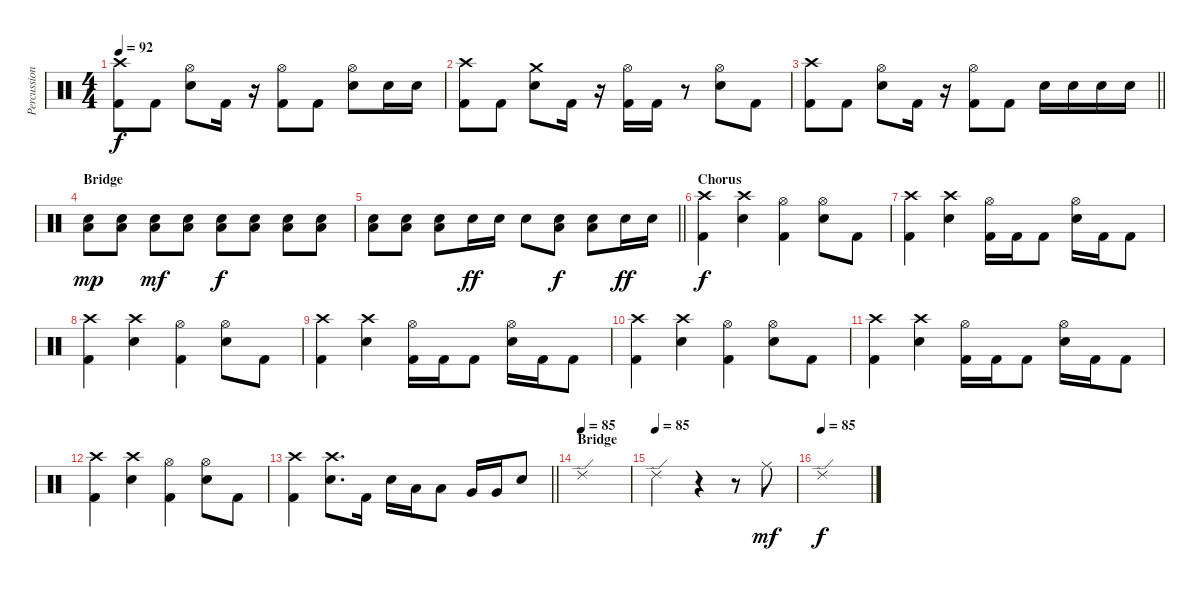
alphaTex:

\track ("Percussion" "Percussion") {instrument percussion}
\staff {score}
\articulation defaults
\ts (4 4)
\tempo 92
\clef neutral
\ks c
("Crash high (hit)" "Kick (hit) 2").8{dy f} "Kick (hit) 2".8 ("Hi-Hat (open)" "Snare (hit) 2").8 "Kick (hit) 2".16 r.16 ("Hi-Hat (open)" "Kick (hit) 2").8 "Kick (hit) 2".8 ("Hi-Hat (open)" "Snare (hit) 2").8 "Snare (hit) 2".16 "Snare (hit) 2".16 |
("Crash high (hit)" "Kick (hit) 2").8 "Kick (hit) 2".8 ("Crash medium (hit)" "Snare (hit) 2").8 "Kick (hit) 2".16 r.16 ("Hi-Hat (open)" "Kick (hit) 2").16 "Kick (hit) 2".16 r.8 ("Hi-Hat (open)" "Snare (hit) 2").8 "Kick (hit) 2".8 |
\barLineRight lightlight
("Crash high (hit)" "Kick (hit) 2").8 "Kick (hit) 2".8 ("Hi-Hat (open)" "Snare (hit) 2").8 "Kick (hit) 2".16 r.16 ("Hi-Hat (open)" "Kick (hit) 2").8 "Kick (hit) 2".8 "Snare (hit) 2".16 "Snare (hit) 2".16 "Snare (hit) 2".16 "Snare (hit) 2".16 |
\section ("" "Bridge")
("Low Floor Tom (hit)" "Snare (hit) 2").8{dy mp} ("Low Floor Tom (hit)" "Snare (hit) 2").8 ("Low Floor Tom (hit)" "Snare (hit) 2").8{dy mf} ("Low Floor Tom (hit)" "Snare (hit) 2").8 ("Low Floor Tom (hit)" "Snare (hit) 2").8{dy f} ("Low Floor Tom (hit)" "Snare (hit) 2").8 ("Low Floor Tom (hit)" "Snare (hit) 2").8 ("Low Floor Tom (hit)" "Snare (hit) 2").8 |
\barLineRight lightlight
("Low Floor Tom (hit)" "Snare (hit) 2").8 ("Low Floor Tom (hit)" "Snare (hit) 2").8 ("Low Floor Tom (hit)" "Snare (hit) 2").8 "Snare (hit) 2".16{dy ff} "Snare (hit) 2".16 "Snare (hit) 2".8 ("Low Floor Tom (hit)" "Snare (hit) 2").8{dy f} ("Low Floor Tom (hit)" "Snare (hit) 2").8 "Snare (hit) 2".16{dy ff} "Snare (hit) 2".16 |
\section ("" "Chorus")
("Crash high (hit)" "Kick (hit) 2").4{dy f} ("Crash high (hit)" "Snare (hit) 2").4 ("Hi-Hat (open)" "Kick (hit) 2").4 ("Hi-Hat (open)" "Snare (hit) 2").8 "Kick (hit) 2".8 |
("Crash high (hit)" "Kick (hit) 2").4 ("Crash high (hit)" "Snare (hit) 2").4 ("Hi-Hat (open)" "Kick (hit) 2").16 "Kick (hit) 2".16 "Kick (hit) 2".8 ("Hi-Hat (open)" "Snare (hit) 2").16 "Kick (hit) 2".16 "Kick (hit) 2".8 |
("Crash high (hit)" "Kick (hit) 2").4 ("Crash high (hit)" "Snare (hit) 2").4 ("Hi-Hat (open)" "Kick (hit) 2").4 ("Hi-Hat (open)" "Snare (hit) 2").8 "Kick (hit) 2".8 |
("Crash high (hit)" "Kick (hit) 2").4 ("Crash high (hit)" "Snare (hit) 2").4 ("Hi-Hat (open)" "Kick (hit) 2").16 "Kick (hit) 2".16 "Kick (hit) 2".8 ("Hi-Hat (open)" "Snare (hit) 2").16 "Kick (hit) 2".16 "Kick (hit) 2".8 |
("Crash high (hit)" "Kick (hit) 2").4 ("Crash high (hit)" "Snare (hit) 2").4 ("Hi-Hat (open)" "Kick (hit) 2").4 ("Hi-Hat (open)" "Snare (hit) 2").8 "Kick (hit) 2".8 |
("Crash high (hit)" "Kick (hit) 2").4 ("Crash high (hit)" "Snare (hit) 2").4 ("Hi-Hat (open)" "Kick (hit) 2").16 "Kick (hit) 2".16 "Kick (hit) 2".8 ("Hi-Hat (open)" "Snare (hit) 2").16 "Kick (hit) 2".16 "Kick (hit) 2".8 |
("Crash high (hit)" "Kick (hit) 2").4 ("Crash high (hit)" "Snare (hit) 2").4 ("Hi-Hat (open)" "Kick (hit) 2").4 ("Hi-Hat (open)" "Snare (hit) 2").8 "Kick (hit) 2".8 |
\barLineRight lightlight
("Crash high (hit)" "Kick (hit) 2").4 ("Crash high (hit)" "Snare (hit) 2").8{d} "Kick (hit) 2".16 "Snare (hit) 2".16 "Low Tom (hit)".16 "Low Tom (hit)".8 "Very Low Tom (hit)".16 "Very Low Tom (hit)".16 "Snare (hit) 2".8 |
\section ("" "Bridge")
\tempo (85)
"Ride (edge) 2".1 |
\tempo (85)
"Ride (edge) 2".2 r.4 r.8 "Ride (middle)".8{dy mf} |
\tempo (85)
"Ride (edge) 2".1{dy f}
